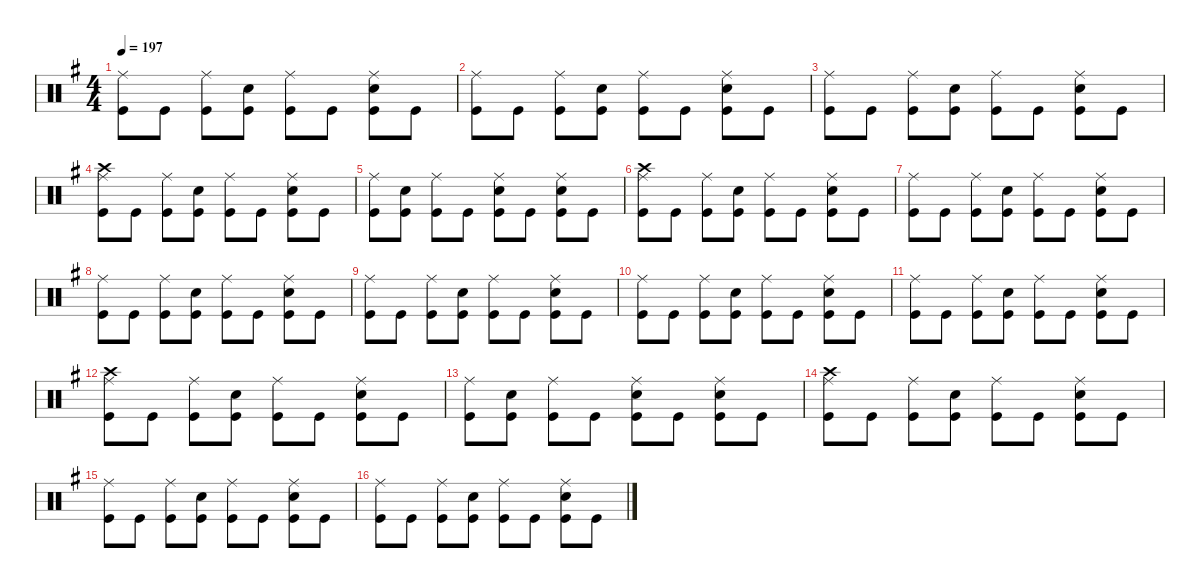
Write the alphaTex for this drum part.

\defaultSystemsLayout 4
\hideDynamics
\bracketExtendMode nobrackets
\singleTrackTrackNamePolicy hidden
\multiTrackTrackNamePolicy hidden
\firstSystemTrackNameMode fullname
\firstSystemTrackNameOrientation horizontal
\otherSystemsTrackNameOrientation horizontal
\track ("Drums" "drm.") {defaultSystemsLayout 4 instrument percussion}
\staff {score}
\articulation defaults
\ts (4 4)
\tempo 197
\clef neutral
\ks eminor
("Ride (middle)"{acc forcenatural} "Kick (hit)"{acc forcenatural}).8{dy f beam Down} "Kick (hit)"{acc forcenatural}.8{beam Down} ("Ride (middle)"{acc forcenatural} "Kick (hit)"{acc forcenatural}).8{beam Down} ("Snare (hit) 2"{acc forcenatural} "Kick (hit)"{acc forcenatural}).8{beam Down} ("Ride (middle)"{acc forcenatural} "Kick (hit)"{acc forcenatural}).8{beam Down} "Kick (hit)"{acc forcenatural}.8{beam Down} ("Ride (middle)"{acc forcenatural} "Snare (hit) 2"{acc forcenatural} "Kick (hit)"{acc forcenatural}).8{beam Down} "Kick (hit)"{acc forcenatural}.8{beam Down} |
("Ride (middle)"{acc forcenatural} "Kick (hit)"{acc forcenatural}).8{beam Down} "Kick (hit)"{acc forcenatural}.8{beam Down} ("Ride (middle)"{acc forcenatural} "Kick (hit)"{acc forcenatural}).8{beam Down} ("Snare (hit) 2"{acc forcenatural} "Kick (hit)"{acc forcenatural}).8{beam Down} ("Ride (middle)"{acc forcenatural} "Kick (hit)"{acc forcenatural}).8{beam Down} "Kick (hit)"{acc forcenatural}.8{beam Down} ("Ride (middle)"{acc forcenatural} "Snare (hit) 2"{acc forcenatural} "Kick (hit)"{acc forcenatural}).8{beam Down} "Kick (hit)"{acc forcenatural}.8{beam Down} |
("Ride (middle)"{acc forcenatural} "Kick (hit)"{acc forcenatural}).8{beam Down} "Kick (hit)"{acc forcenatural}.8{beam Down} ("Ride (middle)"{acc forcenatural} "Kick (hit)"{acc forcenatural}).8{beam Down} ("Snare (hit) 2"{acc forcenatural} "Kick (hit)"{acc forcenatural}).8{beam Down} ("Ride (middle)"{acc forcenatural} "Kick (hit)"{acc forcenatural}).8{beam Down} "Kick (hit)"{acc forcenatural}.8{beam Down} ("Ride (middle)"{acc forcenatural} "Snare (hit) 2"{acc forcenatural} "Kick (hit)"{acc forcenatural}).8{beam Down} "Kick (hit)"{acc forcenatural}.8{beam Down} |
("Crash high (hit)"{acc forcenatural} "Ride (middle)"{acc forcenatural} "Kick (hit)"{acc forcenatural}).8{beam Down} "Kick (hit)"{acc forcenatural}.8{beam Down} ("Ride (middle)"{acc forcenatural} "Kick (hit)"{acc forcenatural}).8{beam Down} ("Snare (hit) 2"{acc forcenatural} "Kick (hit)"{acc forcenatural}).8{beam Down} ("Ride (middle)"{acc forcenatural} "Kick (hit)"{acc forcenatural}).8{beam Down} "Kick (hit)"{acc forcenatural}.8{beam Down} ("Ride (middle)"{acc forcenatural} "Snare (hit) 2"{acc forcenatural} "Kick (hit)"{acc forcenatural}).8{beam Down} "Kick (hit)"{acc forcenatural}.8{beam Down} |
("Ride (middle)"{acc forcenatural} "Kick (hit)"{acc forcenatural}).8{beam Down} ("Snare (hit) 2"{acc forcenatural} "Kick (hit)"{acc forcenatural}).8{beam Down} ("Ride (middle)"{acc forcenatural} "Kick (hit)"{acc forcenatural}).8{beam Down} "Kick (hit)"{acc forcenatural}.8{beam Down} ("Ride (middle)"{acc forcenatural} "Snare (hit) 2"{acc forcenatural} "Kick (hit)"{acc forcenatural}).8{beam Down} "Kick (hit)"{acc forcenatural}.8{beam Down} ("Ride (middle)"{acc forcenatural} "Snare (hit) 2"{acc forcenatural} "Kick (hit)"{acc forcenatural}).8{beam Down} "Kick (hit)"{acc forcenatural}.8{beam Down} |
("Crash high (hit)"{acc forcenatural} "Ride (middle)"{acc forcenatural} "Kick (hit)"{acc forcenatural}).8{beam Down} "Kick (hit)"{acc forcenatural}.8{beam Down} ("Ride (middle)"{acc forcenatural} "Kick (hit)"{acc forcenatural}).8{beam Down} ("Snare (hit) 2"{acc forcenatural} "Kick (hit)"{acc forcenatural}).8{beam Down} ("Ride (middle)"{acc forcenatural} "Kick (hit)"{acc forcenatural}).8{beam Down} "Kick (hit)"{acc forcenatural}.8{beam Down} ("Ride (middle)"{acc forcenatural} "Snare (hit) 2"{acc forcenatural} "Kick (hit)"{acc forcenatural}).8{beam Down} "Kick (hit)"{acc forcenatural}.8{beam Down} |
("Ride (middle)"{acc forcenatural} "Kick (hit)"{acc forcenatural}).8{beam Down} "Kick (hit)"{acc forcenatural}.8{beam Down} ("Ride (middle)"{acc forcenatural} "Kick (hit)"{acc forcenatural}).8{beam Down} ("Snare (hit) 2"{acc forcenatural} "Kick (hit)"{acc forcenatural}).8{beam Down} ("Ride (middle)"{acc forcenatural} "Kick (hit)"{acc forcenatural}).8{beam Down} "Kick (hit)"{acc forcenatural}.8{beam Down} ("Ride (middle)"{acc forcenatural} "Snare (hit) 2"{acc forcenatural} "Kick (hit)"{acc forcenatural}).8{beam Down} "Kick (hit)"{acc forcenatural}.8{beam Down} |
("Ride (middle)"{acc forcenatural} "Kick (hit)"{acc forcenatural}).8{beam Down} "Kick (hit)"{acc forcenatural}.8{beam Down} ("Ride (middle)"{acc forcenatural} "Kick (hit)"{acc forcenatural}).8{beam Down} ("Snare (hit) 2"{acc forcenatural} "Kick (hit)"{acc forcenatural}).8{beam Down} ("Ride (middle)"{acc forcenatural} "Kick (hit)"{acc forcenatural}).8{beam Down} "Kick (hit)"{acc forcenatural}.8{beam Down} ("Ride (middle)"{acc forcenatural} "Snare (hit) 2"{acc forcenatural} "Kick (hit)"{acc forcenatural}).8{beam Down} "Kick (hit)"{acc forcenatural}.8{beam Down} |
("Ride (middle)"{acc forcenatural} "Kick (hit)"{acc forcenatural}).8{beam Down} "Kick (hit)"{acc forcenatural}.8{beam Down} ("Ride (middle)"{acc forcenatural} "Kick (hit)"{acc forcenatural}).8{beam Down} ("Snare (hit) 2"{acc forcenatural} "Kick (hit)"{acc forcenatural}).8{beam Down} ("Ride (middle)"{acc forcenatural} "Kick (hit)"{acc forcenatural}).8{beam Down} "Kick (hit)"{acc forcenatural}.8{beam Down} ("Ride (middle)"{acc forcenatural} "Snare (hit) 2"{acc forcenatural} "Kick (hit)"{acc forcenatural}).8{beam Down} "Kick (hit)"{acc forcenatural}.8{beam Down} |
("Ride (middle)"{acc forcenatural} "Kick (hit)"{acc forcenatural}).8{beam Down} "Kick (hit)"{acc forcenatural}.8{beam Down} ("Ride (middle)"{acc forcenatural} "Kick (hit)"{acc forcenatural}).8{beam Down} ("Snare (hit) 2"{acc forcenatural} "Kick (hit)"{acc forcenatural}).8{beam Down} ("Ride (middle)"{acc forcenatural} "Kick (hit)"{acc forcenatural}).8{beam Down} "Kick (hit)"{acc forcenatural}.8{beam Down} ("Ride (middle)"{acc forcenatural} "Snare (hit) 2"{acc forcenatural} "Kick (hit)"{acc forcenatural}).8{beam Down} "Kick (hit)"{acc forcenatural}.8{beam Down} |
("Ride (middle)"{acc forcenatural} "Kick (hit)"{acc forcenatural}).8{beam Down} "Kick (hit)"{acc forcenatural}.8{beam Down} ("Ride (middle)"{acc forcenatural} "Kick (hit)"{acc forcenatural}).8{beam Down} ("Snare (hit) 2"{acc forcenatural} "Kick (hit)"{acc forcenatural}).8{beam Down} ("Ride (middle)"{acc forcenatural} "Kick (hit)"{acc forcenatural}).8{beam Down} "Kick (hit)"{acc forcenatural}.8{beam Down} ("Ride (middle)"{acc forcenatural} "Snare (hit) 2"{acc forcenatural} "Kick (hit)"{acc forcenatural}).8{beam Down} "Kick (hit)"{acc forcenatural}.8{beam Down} |
("Crash high (hit)"{acc forcenatural} "Ride (middle)"{acc forcenatural} "Kick (hit)"{acc forcenatural}).8{beam Down} "Kick (hit)"{acc forcenatural}.8{beam Down} ("Ride (middle)"{acc forcenatural} "Kick (hit)"{acc forcenatural}).8{beam Down} ("Snare (hit) 2"{acc forcenatural} "Kick (hit)"{acc forcenatural}).8{beam Down} ("Ride (middle)"{acc forcenatural} "Kick (hit)"{acc forcenatural}).8{beam Down} "Kick (hit)"{acc forcenatural}.8{beam Down} ("Ride (middle)"{acc forcenatural} "Snare (hit) 2"{acc forcenatural} "Kick (hit)"{acc forcenatural}).8{beam Down} "Kick (hit)"{acc forcenatural}.8{beam Down} |
("Ride (middle)"{acc forcenatural} "Kick (hit)"{acc forcenatural}).8{beam Down} ("Snare (hit) 2"{acc forcenatural} "Kick (hit)"{acc forcenatural}).8{beam Down} ("Ride (middle)"{acc forcenatural} "Kick (hit)"{acc forcenatural}).8{beam Down} "Kick (hit)"{acc forcenatural}.8{beam Down} ("Ride (middle)"{acc forcenatural} "Snare (hit) 2"{acc forcenatural} "Kick (hit)"{acc forcenatural}).8{beam Down} "Kick (hit)"{acc forcenatural}.8{beam Down} ("Ride (middle)"{acc forcenatural} "Snare (hit) 2"{acc forcenatural} "Kick (hit)"{acc forcenatural}).8{beam Down} "Kick (hit)"{acc forcenatural}.8{beam Down} |
("Crash high (hit)"{acc forcenatural} "Ride (middle)"{acc forcenatural} "Kick (hit)"{acc forcenatural}).8{beam Down} "Kick (hit)"{acc forcenatural}.8{beam Down} ("Ride (middle)"{acc forcenatural} "Kick (hit)"{acc forcenatural}).8{beam Down} ("Snare (hit) 2"{acc forcenatural} "Kick (hit)"{acc forcenatural}).8{beam Down} ("Ride (middle)"{acc forcenatural} "Kick (hit)"{acc forcenatural}).8{beam Down} "Kick (hit)"{acc forcenatural}.8{beam Down} ("Ride (middle)"{acc forcenatural} "Snare (hit) 2"{acc forcenatural} "Kick (hit)"{acc forcenatural}).8{beam Down} "Kick (hit)"{acc forcenatural}.8{beam Down} |
("Ride (middle)"{acc forcenatural} "Kick (hit)"{acc forcenatural}).8{beam Down} "Kick (hit)"{acc forcenatural}.8{beam Down} ("Ride (middle)"{acc forcenatural} "Kick (hit)"{acc forcenatural}).8{beam Down} ("Snare (hit) 2"{acc forcenatural} "Kick (hit)"{acc forcenatural}).8{beam Down} ("Ride (middle)"{acc forcenatural} "Kick (hit)"{acc forcenatural}).8{beam Down} "Kick (hit)"{acc forcenatural}.8{beam Down} ("Ride (middle)"{acc forcenatural} "Snare (hit) 2"{acc forcenatural} "Kick (hit)"{acc forcenatural}).8{beam Down} "Kick (hit)"{acc forcenatural}.8{beam Down} |
("Ride (middle)"{acc forcenatural} "Kick (hit)"{acc forcenatural}).8{beam Down} "Kick (hit)"{acc forcenatural}.8{beam Down} ("Ride (middle)"{acc forcenatural} "Kick (hit)"{acc forcenatural}).8{beam Down} ("Snare (hit) 2"{acc forcenatural} "Kick (hit)"{acc forcenatural}).8{beam Down} ("Ride (middle)"{acc forcenatural} "Kick (hit)"{acc forcenatural}).8{beam Down} "Kick (hit)"{acc forcenatural}.8{beam Down} ("Ride (middle)"{acc forcenatural} "Snare (hit) 2"{acc forcenatural} "Kick (hit)"{acc forcenatural}).8{beam Down} "Kick (hit)"{acc forcenatural}.8{beam Down}
